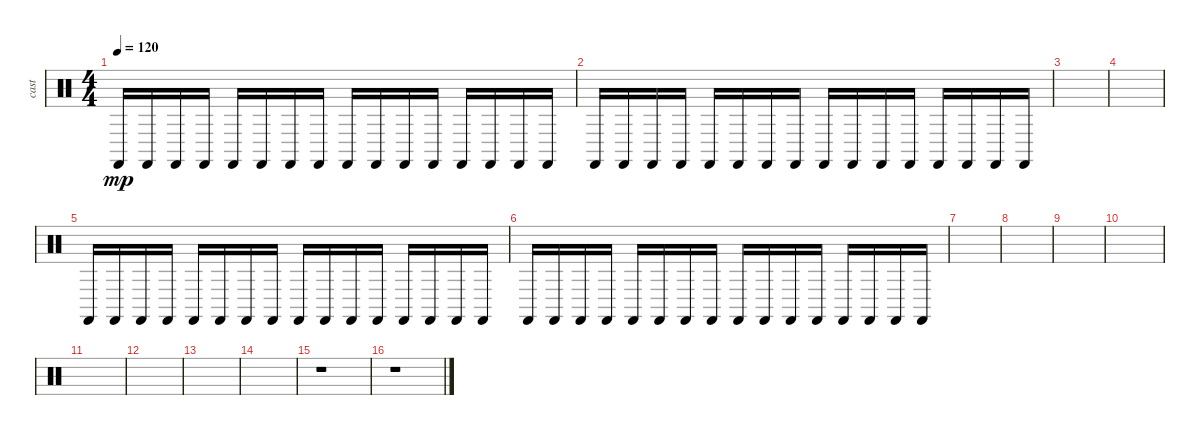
\track ("cast" "cast") {instrument percussion}
\staff {score}
\articulation defaults
\ts (4 4)
\tempo 120
\clef neutral
\ks c "Castanets (hit)".16{dy mp} "Castanets (hit)".16 "Castanets (hit)".16 "Castanets (hit)".16 "Castanets (hit)".16 "Castanets (hit)".16 "Castanets (hit)".16 "Castanets (hit)".16 "Castanets (hit)".16 "Castanets (hit)".16 "Castanets (hit)".16 "Castanets (hit)".16 "Castanets (hit)".16 "Castanets (hit)".16 "Castanets (hit)".16 "Castanets (hit)".16
|
"Castanets (hit)".16 "Castanets (hit)".16 "Castanets (hit)".16 "Castanets (hit)".16 "Castanets (hit)".16 "Castanets (hit)".16 "Castanets (hit)".16 "Castanets (hit)".16 "Castanets (hit)".16 "Castanets (hit)".16 "Castanets (hit)".16 "Castanets (hit)".16 "Castanets (hit)".16 "Castanets (hit)".16 "Castanets (hit)".16 "Castanets (hit)".16 |
|
|
"Castanets (hit)".16 "Castanets (hit)".16 "Castanets (hit)".16 "Castanets (hit)".16 "Castanets (hit)".16 "Castanets (hit)".16 "Castanets (hit)".16 "Castanets (hit)".16 "Castanets (hit)".16 "Castanets (hit)".16 "Castanets (hit)".16 "Castanets (hit)".16 "Castanets (hit)".16 "Castanets (hit)".16 "Castanets (hit)".16 "Castanets (hit)".16 |
"Castanets (hit)".16 "Castanets (hit)".16 "Castanets (hit)".16 "Castanets (hit)".16 "Castanets (hit)".16 "Castanets (hit)".16 "Castanets (hit)".16 "Castanets (hit)".16 "Castanets (hit)".16 "Castanets (hit)".16 "Castanets (hit)".16 "Castanets (hit)".16 "Castanets (hit)".16 "Castanets (hit)".16 "Castanets (hit)".16 "Castanets (hit)".16 |
|
|
|
|
|
|
|
|
r.1 |
r.1
